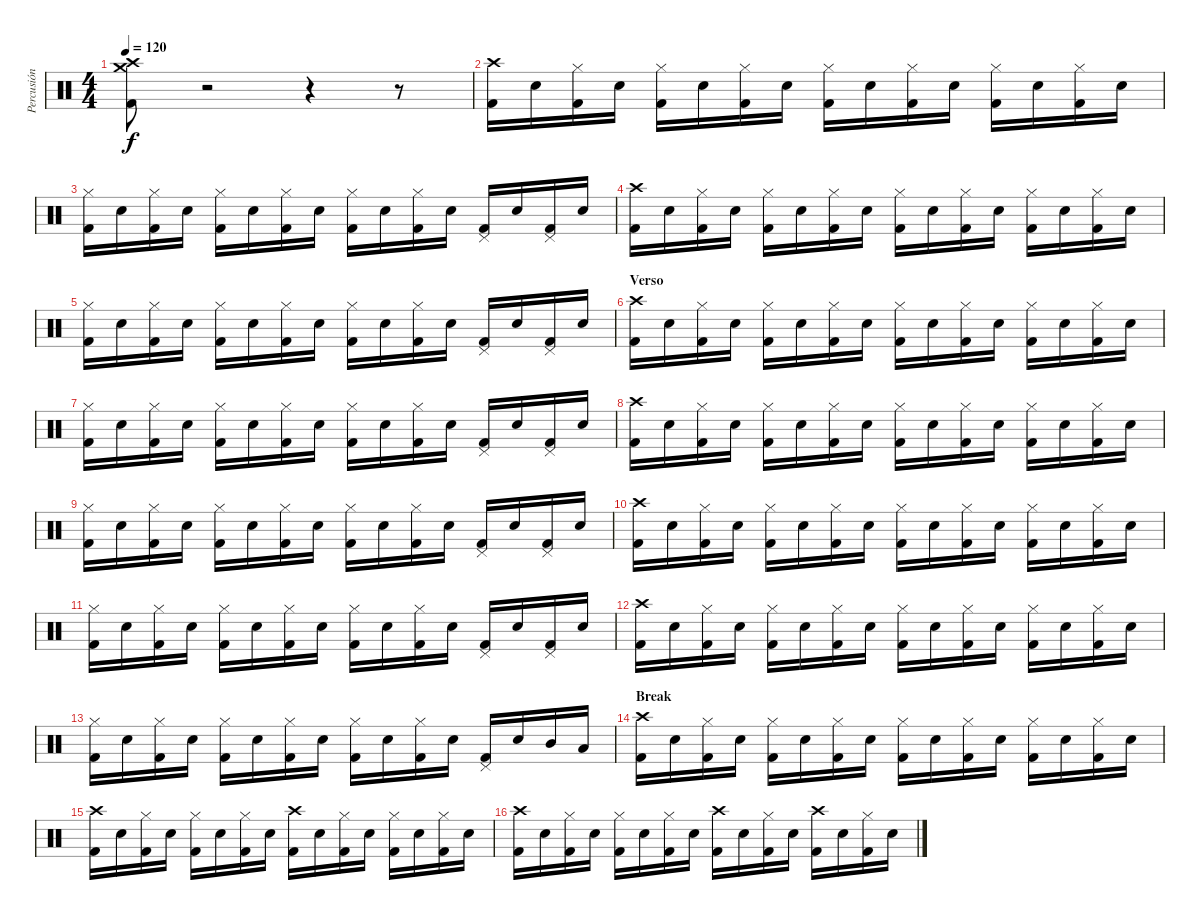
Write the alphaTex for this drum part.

\track ("Percusión" "Percusión") {instrument percussion}
\staff {score}
\articulation defaults
\ts (4 4)
\tempo 120
\clef neutral
\ks c
("Crash medium (hit)" "Crash high (hit)" "Kick (hit) 2").8{dy f} r.2 r.4 r.8 |
("Crash high (hit)" "Kick (hit) 2").16 "Snare (hit) 2".16 ("Hi-Hat (closed)" "Kick (hit) 2").16 "Snare (hit) 2".16 ("Hi-Hat (closed)" "Kick (hit) 2").16 "Snare (hit) 2".16 ("Hi-Hat (closed)" "Kick (hit) 2").16 "Snare (hit) 2".16 ("Hi-Hat (closed)" "Kick (hit) 2").16 "Snare (hit) 2".16 ("Hi-Hat (closed)" "Kick (hit) 2").16 "Snare (hit) 2".16 ("Hi-Hat (closed)" "Kick (hit) 2").16 "Snare (hit) 2".16 ("Hi-Hat (closed)" "Kick (hit) 2").16 "Snare (hit) 2".16 |
("Hi-Hat (closed)" "Kick (hit) 2").16 "Snare (hit) 2".16 ("Hi-Hat (closed)" "Kick (hit) 2").16 "Snare (hit) 2".16 ("Hi-Hat (closed)" "Kick (hit) 2").16 "Snare (hit) 2".16 ("Hi-Hat (closed)" "Kick (hit) 2").16 "Snare (hit) 2".16 ("Hi-Hat (closed)" "Kick (hit) 2").16 "Snare (hit) 2".16 ("Hi-Hat (closed)" "Kick (hit) 2").16 "Snare (hit) 2".16 ("Pedal Hi-Hat (hit)" "Kick (hit) 2").16 "Snare (hit) 2".16 ("Pedal Hi-Hat (hit)" "Kick (hit) 2").16 "Snare (hit) 2".16 |
("Crash high (hit)" "Kick (hit) 2").16 "Snare (hit) 2".16 ("Hi-Hat (closed)" "Kick (hit) 2").16 "Snare (hit) 2".16 ("Hi-Hat (closed)" "Kick (hit) 2").16 "Snare (hit) 2".16 ("Hi-Hat (closed)" "Kick (hit) 2").16 "Snare (hit) 2".16 ("Hi-Hat (closed)" "Kick (hit) 2").16 "Snare (hit) 2".16 ("Hi-Hat (closed)" "Kick (hit) 2").16 "Snare (hit) 2".16 ("Hi-Hat (closed)" "Kick (hit) 2").16 "Snare (hit) 2".16 ("Hi-Hat (closed)" "Kick (hit) 2").16 "Snare (hit) 2".16 |
("Hi-Hat (closed)" "Kick (hit) 2").16 "Snare (hit) 2".16 ("Hi-Hat (closed)" "Kick (hit) 2").16 "Snare (hit) 2".16 ("Hi-Hat (closed)" "Kick (hit) 2").16 "Snare (hit) 2".16 ("Hi-Hat (closed)" "Kick (hit) 2").16 "Snare (hit) 2".16 ("Hi-Hat (closed)" "Kick (hit) 2").16 "Snare (hit) 2".16 ("Hi-Hat (closed)" "Kick (hit) 2").16 "Snare (hit) 2".16 ("Pedal Hi-Hat (hit)" "Kick (hit) 2").16 "Snare (hit) 2".16 ("Pedal Hi-Hat (hit)" "Kick (hit) 2").16 "Snare (hit) 2".16 |
\section ("" "Verso")
("Crash high (hit)" "Kick (hit) 2").16 "Snare (hit) 2".16 ("Hi-Hat (closed)" "Kick (hit) 2").16 "Snare (hit) 2".16 ("Hi-Hat (closed)" "Kick (hit) 2").16 "Snare (hit) 2".16 ("Hi-Hat (closed)" "Kick (hit) 2").16 "Snare (hit) 2".16 ("Hi-Hat (closed)" "Kick (hit) 2").16 "Snare (hit) 2".16 ("Hi-Hat (closed)" "Kick (hit) 2").16 "Snare (hit) 2".16 ("Hi-Hat (closed)" "Kick (hit) 2").16 "Snare (hit) 2".16 ("Hi-Hat (closed)" "Kick (hit) 2").16 "Snare (hit) 2".16 |
("Hi-Hat (closed)" "Kick (hit) 2").16 "Snare (hit) 2".16 ("Hi-Hat (closed)" "Kick (hit) 2").16 "Snare (hit) 2".16 ("Hi-Hat (closed)" "Kick (hit) 2").16 "Snare (hit) 2".16 ("Hi-Hat (closed)" "Kick (hit) 2").16 "Snare (hit) 2".16 ("Hi-Hat (closed)" "Kick (hit) 2").16 "Snare (hit) 2".16 ("Hi-Hat (closed)" "Kick (hit) 2").16 "Snare (hit) 2".16 ("Pedal Hi-Hat (hit)" "Kick (hit) 2").16 "Snare (hit) 2".16 ("Pedal Hi-Hat (hit)" "Kick (hit) 2").16 "Snare (hit) 2".16 |
("Crash high (hit)" "Kick (hit) 2").16 "Snare (hit) 2".16 ("Hi-Hat (closed)" "Kick (hit) 2").16 "Snare (hit) 2".16 ("Hi-Hat (closed)" "Kick (hit) 2").16 "Snare (hit) 2".16 ("Hi-Hat (closed)" "Kick (hit) 2").16 "Snare (hit) 2".16 ("Hi-Hat (closed)" "Kick (hit) 2").16 "Snare (hit) 2".16 ("Hi-Hat (closed)" "Kick (hit) 2").16 "Snare (hit) 2".16 ("Hi-Hat (closed)" "Kick (hit) 2").16 "Snare (hit) 2".16 ("Hi-Hat (closed)" "Kick (hit) 2").16 "Snare (hit) 2".16 |
("Hi-Hat (closed)" "Kick (hit) 2").16 "Snare (hit) 2".16 ("Hi-Hat (closed)" "Kick (hit) 2").16 "Snare (hit) 2".16 ("Hi-Hat (closed)" "Kick (hit) 2").16 "Snare (hit) 2".16 ("Hi-Hat (closed)" "Kick (hit) 2").16 "Snare (hit) 2".16 ("Hi-Hat (closed)" "Kick (hit) 2").16 "Snare (hit) 2".16 ("Hi-Hat (closed)" "Kick (hit) 2").16 "Snare (hit) 2".16 ("Pedal Hi-Hat (hit)" "Kick (hit) 2").16 "Snare (hit) 2".16 ("Pedal Hi-Hat (hit)" "Kick (hit) 2").16 "Snare (hit) 2".16 |
("Crash high (hit)" "Kick (hit) 2").16 "Snare (hit) 2".16 ("Hi-Hat (closed)" "Kick (hit) 2").16 "Snare (hit) 2".16 ("Hi-Hat (closed)" "Kick (hit) 2").16 "Snare (hit) 2".16 ("Hi-Hat (closed)" "Kick (hit) 2").16 "Snare (hit) 2".16 ("Hi-Hat (closed)" "Kick (hit) 2").16 "Snare (hit) 2".16 ("Hi-Hat (closed)" "Kick (hit) 2").16 "Snare (hit) 2".16 ("Hi-Hat (closed)" "Kick (hit) 2").16 "Snare (hit) 2".16 ("Hi-Hat (closed)" "Kick (hit) 2").16 "Snare (hit) 2".16 |
("Hi-Hat (closed)" "Kick (hit) 2").16 "Snare (hit) 2".16 ("Hi-Hat (closed)" "Kick (hit) 2").16 "Snare (hit) 2".16 ("Hi-Hat (closed)" "Kick (hit) 2").16 "Snare (hit) 2".16 ("Hi-Hat (closed)" "Kick (hit) 2").16 "Snare (hit) 2".16 ("Hi-Hat (closed)" "Kick (hit) 2").16 "Snare (hit) 2".16 ("Hi-Hat (closed)" "Kick (hit) 2").16 "Snare (hit) 2".16 ("Pedal Hi-Hat (hit)" "Kick (hit) 2").16 "Snare (hit) 2".16 ("Pedal Hi-Hat (hit)" "Kick (hit) 2").16 "Snare (hit) 2".16 |
("Crash high (hit)" "Kick (hit) 2").16 "Snare (hit) 2".16 ("Hi-Hat (closed)" "Kick (hit) 2").16 "Snare (hit) 2".16 ("Hi-Hat (closed)" "Kick (hit) 2").16 "Snare (hit) 2".16 ("Hi-Hat (closed)" "Kick (hit) 2").16 "Snare (hit) 2".16 ("Hi-Hat (closed)" "Kick (hit) 2").16 "Snare (hit) 2".16 ("Hi-Hat (closed)" "Kick (hit) 2").16 "Snare (hit) 2".16 ("Hi-Hat (closed)" "Kick (hit) 2").16 "Snare (hit) 2".16 ("Hi-Hat (closed)" "Kick (hit) 2").16 "Snare (hit) 2".16 |
("Hi-Hat (closed)" "Kick (hit) 2").16 "Snare (hit) 2".16 ("Hi-Hat (closed)" "Kick (hit) 2").16 "Snare (hit) 2".16 ("Hi-Hat (closed)" "Kick (hit) 2").16 "Snare (hit) 2".16 ("Hi-Hat (closed)" "Kick (hit) 2").16 "Snare (hit) 2".16 ("Hi-Hat (closed)" "Kick (hit) 2").16 "Snare (hit) 2".16 ("Hi-Hat (closed)" "Kick (hit) 2").16 "Snare (hit) 2".16 ("Pedal Hi-Hat (hit)" "Kick (hit) 2").16 "Snare (hit) 2".16 "Mid Tom (hit)".16 "Low Tom (hit)".16 |
\section ("" "Break")
("Crash high (hit)" "Kick (hit) 2").16 "Snare (hit) 2".16 ("Hi-Hat (closed)" "Kick (hit) 2").16 "Snare (hit) 2".16 ("Hi-Hat (closed)" "Kick (hit) 2").16 "Snare (hit) 2".16 ("Hi-Hat (closed)" "Kick (hit) 2").16 "Snare (hit) 2".16 ("Hi-Hat (closed)" "Kick (hit) 2").16 "Snare (hit) 2".16 ("Hi-Hat (closed)" "Kick (hit) 2").16 "Snare (hit) 2".16 ("Hi-Hat (closed)" "Kick (hit) 2").16 "Snare (hit) 2".16 ("Hi-Hat (closed)" "Kick (hit) 2").16 "Snare (hit) 2".16 |
("Crash high (hit)" "Kick (hit) 2").16 "Snare (hit) 2".16 ("Hi-Hat (closed)" "Kick (hit) 2").16 "Snare (hit) 2".16 ("Hi-Hat (closed)" "Kick (hit) 2").16 "Snare (hit) 2".16 ("Hi-Hat (closed)" "Kick (hit) 2").16 "Snare (hit) 2".16 ("Crash high (hit)" "Kick (hit) 2").16 "Snare (hit) 2".16 ("Hi-Hat (closed)" "Kick (hit) 2").16 "Snare (hit) 2".16 ("Hi-Hat (closed)" "Kick (hit) 2").16 "Snare (hit) 2".16 ("Hi-Hat (closed)" "Kick (hit) 2").16 "Snare (hit) 2".16 |
("Crash high (hit)" "Kick (hit) 2").16 "Snare (hit) 2".16 ("Hi-Hat (closed)" "Kick (hit) 2").16 "Snare (hit) 2".16 ("Hi-Hat (closed)" "Kick (hit) 2").16 "Snare (hit) 2".16 ("Hi-Hat (closed)" "Kick (hit) 2").16 "Snare (hit) 2".16 ("Crash high (hit)" "Kick (hit) 2").16 "Snare (hit) 2".16 ("Hi-Hat (closed)" "Kick (hit) 2").16 "Snare (hit) 2".16 ("Crash high (hit)" "Kick (hit) 2").16 "Snare (hit) 2".16 ("Hi-Hat (closed)" "Kick (hit) 2").16 "Snare (hit) 2".16
